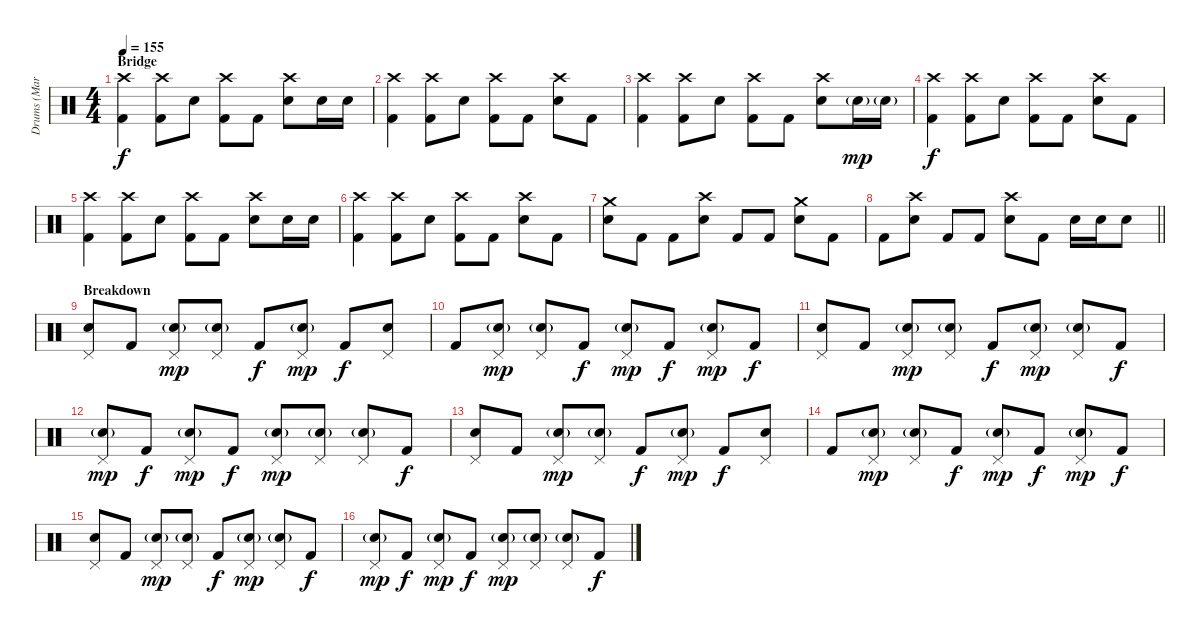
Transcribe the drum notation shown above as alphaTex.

\track ("Drums (Mark)" "Drums (Mar") {instrument percussion}
\staff {score}
\articulation defaults
\ts (4 4)
\section ("" "Bridge")
\tempo 155
\clef neutral
\ks c
("Crash high (hit)" "Kick (hit) 2").4{dy f} ("Crash high (hit)" "Kick (hit) 2").8 "Snare (hit) 2".8 ("Crash high (hit)" "Kick (hit) 2").8 "Kick (hit) 2".8 ("Crash high (hit)" "Snare (hit) 2").8 "Snare (hit) 2".16 "Snare (hit) 2".16 |
("Crash high (hit)" "Kick (hit) 2").4 ("Crash high (hit)" "Kick (hit) 2").8 "Snare (hit) 2".8 ("Crash high (hit)" "Kick (hit) 2").8 "Kick (hit) 2".8 ("Crash high (hit)" "Snare (hit) 2").8 "Kick (hit) 2".8 |
("Crash high (hit)" "Kick (hit) 2").4 ("Crash high (hit)" "Kick (hit) 2").8 "Snare (hit) 2".8 ("Crash high (hit)" "Kick (hit) 2").8 "Kick (hit) 2".8 ("Crash high (hit)" "Snare (hit) 2").8 "Snare (hit) 2"{g}.16{dy mp} "Snare (hit) 2"{g}.16 |
("Crash high (hit)" "Kick (hit) 2").4{dy f} ("Crash high (hit)" "Kick (hit) 2").8 "Snare (hit) 2".8 ("Crash high (hit)" "Kick (hit) 2").8 "Kick (hit) 2".8 ("Crash high (hit)" "Snare (hit) 2").8 "Kick (hit) 2".8 |
("Crash high (hit)" "Kick (hit) 2").4 ("Crash high (hit)" "Kick (hit) 2").8 "Snare (hit) 2".8 ("Crash high (hit)" "Kick (hit) 2").8 "Kick (hit) 2".8 ("Crash high (hit)" "Snare (hit) 2").8 "Snare (hit) 2".16 "Snare (hit) 2".16 |
("Crash high (hit)" "Kick (hit) 2").4 ("Crash high (hit)" "Kick (hit) 2").8 "Snare (hit) 2".8 ("Crash high (hit)" "Kick (hit) 2").8 "Kick (hit) 2".8 ("Crash high (hit)" "Snare (hit) 2").8 "Kick (hit) 2".8 |
("Crash medium (hit)" "Snare (hit) 2").8 "Kick (hit) 2".8 "Kick (hit) 2".8 ("Crash high (hit)" "Snare (hit) 2").8 "Kick (hit) 2".8 "Kick (hit) 2".8 ("Crash medium (hit)" "Snare (hit) 2").8 "Kick (hit) 2".8 |
\barLineRight lightlight "Kick (hit) 2".8
("Crash high (hit)" "Snare (hit) 2").8 "Kick (hit) 2".8 "Kick (hit) 2".8 ("Crash high (hit)" "Snare (hit) 2").8 "Kick (hit) 2".8 "Snare (hit) 2".16 "Snare (hit) 2".16 "Snare (hit) 2".8 |
\section ("" "Breakdown")
("Pedal Hi-Hat (hit)" "Snare (hit) 2").8 "Kick (hit) 2".8 ("Pedal Hi-Hat (hit)" "Snare (hit) 2"{g}).8{dy mp} ("Pedal Hi-Hat (hit)" "Snare (hit) 2"{g}).8 "Kick (hit) 2".8{dy f} ("Pedal Hi-Hat (hit)" "Snare (hit) 2"{g}).8{dy mp} "Kick (hit) 2".8{dy f} ("Pedal Hi-Hat (hit)" "Snare (hit) 2").8 |
"Kick (hit) 2".8 ("Pedal Hi-Hat (hit)" "Snare (hit) 2"{g}).8{dy mp} ("Pedal Hi-Hat (hit)" "Snare (hit) 2"{g}).8 "Kick (hit) 2".8{dy f} ("Pedal Hi-Hat (hit)" "Snare (hit) 2"{g}).8{dy mp} "Kick (hit) 2".8{dy f} ("Pedal Hi-Hat (hit)" "Snare (hit) 2"{g}).8{dy mp} "Kick (hit) 2".8{dy f} |
("Pedal Hi-Hat (hit)" "Snare (hit) 2").8 "Kick (hit) 2".8 ("Pedal Hi-Hat (hit)" "Snare (hit) 2"{g}).8{dy mp} ("Pedal Hi-Hat (hit)" "Snare (hit) 2"{g}).8 "Kick (hit) 2".8{dy f} ("Pedal Hi-Hat (hit)" "Snare (hit) 2"{g}).8{dy mp} ("Pedal Hi-Hat (hit)" "Snare (hit) 2"{g}).8 "Kick (hit) 2".8{dy f} |
("Pedal Hi-Hat (hit)" "Snare (hit) 2"{g}).8{dy mp} "Kick (hit) 2".8{dy f} ("Pedal Hi-Hat (hit)" "Snare (hit) 2"{g}).8{dy mp} "Kick (hit) 2".8{dy f} ("Pedal Hi-Hat (hit)" "Snare (hit) 2"{g}).8{dy mp} ("Pedal Hi-Hat (hit)" "Snare (hit) 2"{g}).8 ("Pedal Hi-Hat (hit)" "Snare (hit) 2"{g}).8 "Kick (hit) 2".8{dy f} |
("Pedal Hi-Hat (hit)" "Snare (hit) 2").8 "Kick (hit) 2".8 ("Pedal Hi-Hat (hit)" "Snare (hit) 2"{g}).8{dy mp} ("Pedal Hi-Hat (hit)" "Snare (hit) 2"{g}).8 "Kick (hit) 2".8{dy f} ("Pedal Hi-Hat (hit)" "Snare (hit) 2"{g}).8{dy mp} "Kick (hit) 2".8{dy f} ("Pedal Hi-Hat (hit)" "Snare (hit) 2").8 |
"Kick (hit) 2".8 ("Pedal Hi-Hat (hit)" "Snare (hit) 2"{g}).8{dy mp} ("Pedal Hi-Hat (hit)" "Snare (hit) 2"{g}).8 "Kick (hit) 2".8{dy f} ("Pedal Hi-Hat (hit)" "Snare (hit) 2"{g}).8{dy mp} "Kick (hit) 2".8{dy f} ("Pedal Hi-Hat (hit)" "Snare (hit) 2"{g}).8{dy mp} "Kick (hit) 2".8{dy f} |
("Pedal Hi-Hat (hit)" "Snare (hit) 2").8 "Kick (hit) 2".8 ("Pedal Hi-Hat (hit)" "Snare (hit) 2"{g}).8{dy mp} ("Pedal Hi-Hat (hit)" "Snare (hit) 2"{g}).8 "Kick (hit) 2".8{dy f} ("Pedal Hi-Hat (hit)" "Snare (hit) 2"{g}).8{dy mp} ("Pedal Hi-Hat (hit)" "Snare (hit) 2"{g}).8 "Kick (hit) 2".8{dy f} |
("Pedal Hi-Hat (hit)" "Snare (hit) 2"{g}).8{dy mp} "Kick (hit) 2".8{dy f} ("Pedal Hi-Hat (hit)" "Snare (hit) 2"{g}).8{dy mp} "Kick (hit) 2".8{dy f} ("Pedal Hi-Hat (hit)" "Snare (hit) 2"{g}).8{dy mp} ("Pedal Hi-Hat (hit)" "Snare (hit) 2"{g}).8 ("Pedal Hi-Hat (hit)" "Snare (hit) 2"{g}).8 "Kick (hit) 2".8{dy f}
